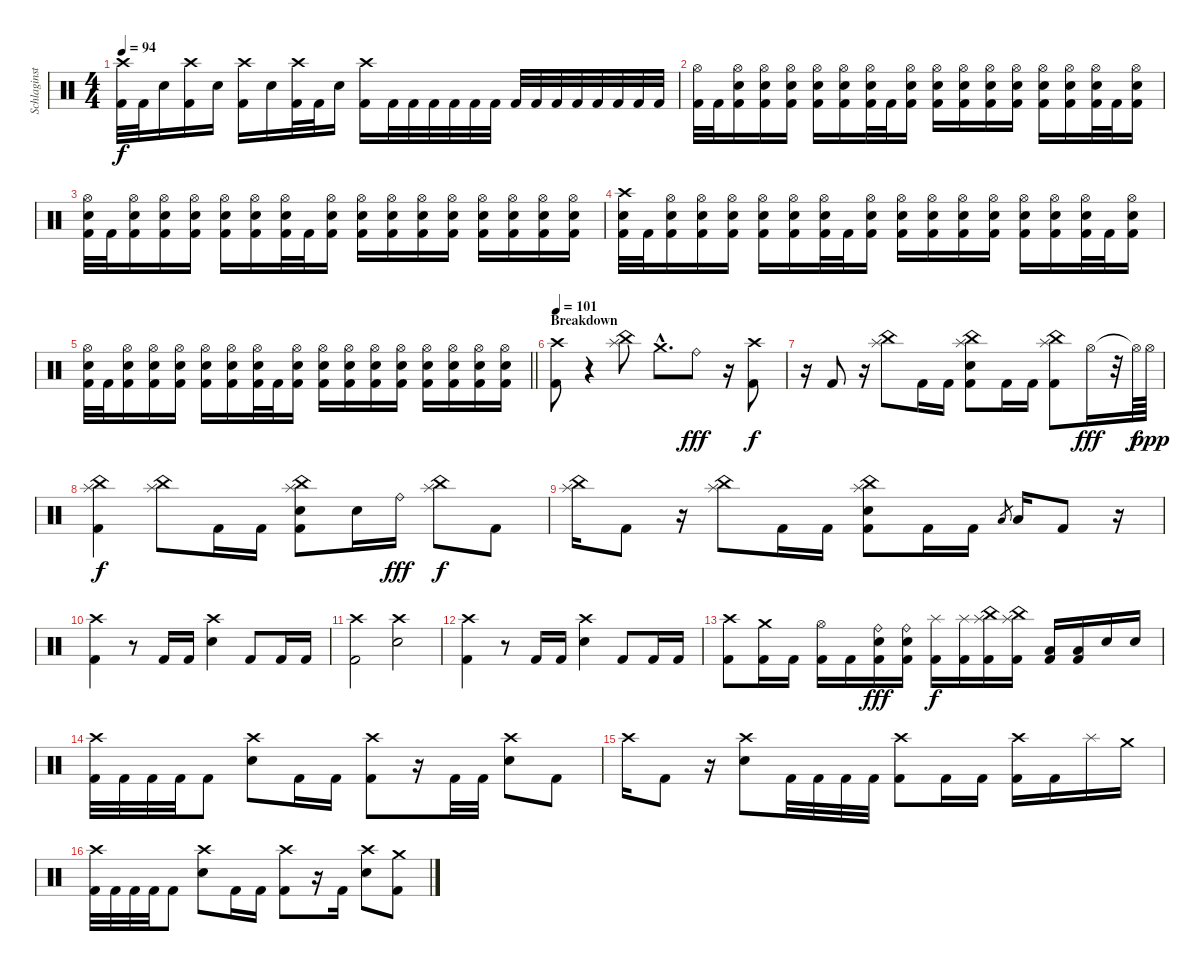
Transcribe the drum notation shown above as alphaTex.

\track ("Schlaginstrumente - Auswahl" "Schlaginst") {instrument percussion}
\staff {score}
\articulation defaults
\ts (4 4)
\tempo 94
\clef neutral
\ks c
("Crash high (hit)" "Kick (hit) 2").32{dy f} "Kick (hit) 2".32 "Snare (hit) 2".16 ("Crash high (hit)" "Kick (hit) 2").16 "Snare (hit) 2".16 ("Crash high (hit)" "Kick (hit) 2").16 "Snare (hit) 2".16 ("Crash high (hit)" "Kick (hit) 2").32 "Kick (hit) 2".32 "Snare (hit) 2".16 ("Crash high (hit)" "Kick (hit) 2").16 "Kick (hit) 2".32 "Kick (hit) 2".32 "Kick (hit) 2".32 "Kick (hit) 2".32 "Kick (hit) 2".32 "Kick (hit) 2".32 "Kick (hit) 2".32 "Kick (hit) 2".32 "Kick (hit) 2".32 "Kick (hit) 2".32 "Kick (hit) 2".32 "Kick (hit) 2".32 "Kick (hit) 2".32 "Kick (hit) 2".32 |
("Hi-Hat (open)" "Kick (hit) 2").32 "Kick (hit) 2".32 ("Hi-Hat (open)" "Snare (hit) 2" "Kick (hit) 2").16 ("Hi-Hat (open)" "Snare (hit) 2" "Kick (hit) 2").16 ("Hi-Hat (open)" "Snare (hit) 2" "Kick (hit) 2").16 ("Hi-Hat (open)" "Snare (hit) 2" "Kick (hit) 2").16 ("Hi-Hat (open)" "Snare (hit) 2" "Kick (hit) 2").16 ("Hi-Hat (open)" "Snare (hit) 2" "Kick (hit) 2").32 "Kick (hit) 2".32 ("Hi-Hat (open)" "Snare (hit) 2" "Kick (hit) 2").16 ("Hi-Hat (open)" "Snare (hit) 2" "Kick (hit) 2").16 ("Hi-Hat (open)" "Snare (hit) 2" "Kick (hit) 2").16 ("Hi-Hat (open)" "Snare (hit) 2" "Kick (hit) 2").16 ("Hi-Hat (open)" "Snare (hit) 2" "Kick (hit) 2").16 ("Hi-Hat (open)" "Snare (hit) 2" "Kick (hit) 2").16 ("Hi-Hat (open)" "Snare (hit) 2" "Kick (hit) 2").16 ("Hi-Hat (open)" "Snare (hit) 2" "Kick (hit) 2").32 "Kick (hit) 2".32 ("Hi-Hat (open)" "Snare (hit) 2" "Kick (hit) 2").16 |
("Hi-Hat (open)" "Snare (hit) 2" "Kick (hit) 2").32 "Kick (hit) 2".32 ("Hi-Hat (open)" "Snare (hit) 2" "Kick (hit) 2").16 ("Hi-Hat (open)" "Snare (hit) 2" "Kick (hit) 2").16 ("Hi-Hat (open)" "Snare (hit) 2" "Kick (hit) 2").16 ("Hi-Hat (open)" "Snare (hit) 2" "Kick (hit) 2").16 ("Hi-Hat (open)" "Snare (hit) 2" "Kick (hit) 2").16 ("Hi-Hat (open)" "Snare (hit) 2" "Kick (hit) 2").32 "Kick (hit) 2".32 ("Hi-Hat (open)" "Snare (hit) 2" "Kick (hit) 2").16 ("Hi-Hat (open)" "Snare (hit) 2" "Kick (hit) 2").16 ("Hi-Hat (open)" "Snare (hit) 2" "Kick (hit) 2").16 ("Hi-Hat (open)" "Snare (hit) 2" "Kick (hit) 2").16 ("Hi-Hat (open)" "Snare (hit) 2" "Kick (hit) 2").16 ("Hi-Hat (open)" "Snare (hit) 2" "Kick (hit) 2").16 ("Hi-Hat (open)" "Snare (hit) 2" "Kick (hit) 2").16 ("Hi-Hat (open)" "Snare (hit) 2" "Kick (hit) 2").16 ("Hi-Hat (open)" "Snare (hit) 2" "Kick (hit) 2").16 |
("Crash high (hit)" "Snare (hit) 2" "Kick (hit) 2").32 "Kick (hit) 2".32 ("Hi-Hat (open)" "Snare (hit) 2" "Kick (hit) 2").16 ("Hi-Hat (open)" "Snare (hit) 2" "Kick (hit) 2").16 ("Hi-Hat (open)" "Snare (hit) 2" "Kick (hit) 2").16 ("Hi-Hat (open)" "Snare (hit) 2" "Kick (hit) 2").16 ("Hi-Hat (open)" "Snare (hit) 2" "Kick (hit) 2").16 ("Hi-Hat (open)" "Snare (hit) 2" "Kick (hit) 2").32 "Kick (hit) 2".32 ("Hi-Hat (open)" "Snare (hit) 2" "Kick (hit) 2").16 ("Hi-Hat (open)" "Snare (hit) 2" "Kick (hit) 2").16 ("Hi-Hat (open)" "Snare (hit) 2" "Kick (hit) 2").16 ("Hi-Hat (open)" "Snare (hit) 2" "Kick (hit) 2").16 ("Hi-Hat (open)" "Snare (hit) 2" "Kick (hit) 2").16 ("Hi-Hat (open)" "Snare (hit) 2" "Kick (hit) 2").16 ("Hi-Hat (open)" "Snare (hit) 2" "Kick (hit) 2").16 ("Hi-Hat (open)" "Snare (hit) 2" "Kick (hit) 2").32 "Kick (hit) 2".32 ("Hi-Hat (open)" "Snare (hit) 2" "Kick (hit) 2").16 |
\barLineRight lightlight
("Hi-Hat (open)" "Snare (hit) 2" "Kick (hit) 2").32 "Kick (hit) 2".32 ("Hi-Hat (open)" "Snare (hit) 2" "Kick (hit) 2").16 ("Hi-Hat (open)" "Snare (hit) 2" "Kick (hit) 2").16 ("Hi-Hat (open)" "Snare (hit) 2" "Kick (hit) 2").16 ("Hi-Hat (open)" "Snare (hit) 2" "Kick (hit) 2").16 ("Hi-Hat (open)" "Snare (hit) 2" "Kick (hit) 2").16 ("Hi-Hat (open)" "Snare (hit) 2" "Kick (hit) 2").32 "Kick (hit) 2".32 ("Hi-Hat (open)" "Snare (hit) 2" "Kick (hit) 2").16 ("Hi-Hat (open)" "Snare (hit) 2" "Kick (hit) 2").16 ("Hi-Hat (open)" "Snare (hit) 2" "Kick (hit) 2").16 ("Hi-Hat (open)" "Snare (hit) 2" "Kick (hit) 2").16 ("Hi-Hat (open)" "Snare (hit) 2" "Kick (hit) 2").16 ("Hi-Hat (open)" "Snare (hit) 2" "Kick (hit) 2").16 ("Hi-Hat (open)" "Snare (hit) 2" "Kick (hit) 2").16 ("Hi-Hat (open)" "Snare (hit) 2" "Kick (hit) 2").16 ("Hi-Hat (open)" "Snare (hit) 2" "Kick (hit) 2").16 |
\section ("" "Breakdown")
\tempo 101
("Crash high (hit)" "Kick (hit) 2").8 r.4 ("China (hit)" "Splash (hit)").8 "Crash medium (hit)"{hac}.8{d} "Ride (bell)".8{dy fff} r.16 ("Crash high (hit)" "Kick (hit) 2").8{dy f} |
r.16 "Kick (hit) 2".8 r.16 ("China (hit)" "Splash (hit)").8 "Kick (hit) 2".16 "Kick (hit) 2".16 ("China (hit)" "Splash (hit)" "Snare (hit) 2" "Kick (hit) 2").8 "Kick (hit) 2".16 "Kick (hit) 2".16 ("China (hit)" "Splash (hit)" "Kick (hit) 2").8 "Hi-Hat (open)".16{dy fff} r.32 "Hi-Hat (open)"{t}.64{dy f} "Hi-Hat (open)".64{dy ppp} |
("China (hit)" "Splash (hit)" "Kick (hit) 2").4{dy f} ("China (hit)" "Splash (hit)").8 "Kick (hit) 2".16 "Kick (hit) 2".16 ("China (hit)" "Splash (hit)" "Snare (hit) 2" "Kick (hit) 2").8 "Snare (hit) 2".16 "Ride (bell)".16{dy fff} ("China (hit)" "Splash (hit)").8{dy f} "Kick (hit) 2".8 |
("China (hit)" "Splash (hit)").16 "Kick (hit) 2".8 r.16 ("China (hit)" "Splash (hit)").8 "Kick (hit) 2".16 "Kick (hit) 2".16 ("China (hit)" "Splash (hit)" "Snare (hit) 2" "Kick (hit) 2").8 "Kick (hit) 2".16 "Kick (hit) 2".16 "Low Tom (hit)".8{gr} "Low Tom (hit)".16 "Kick (hit) 2".8 r.16 |
("Crash high (hit)" "Kick (hit) 2").4 r.8 "Kick (hit) 2".16 "Kick (hit) 2".16 ("Crash high (hit)" "Snare (hit) 2").4 "Kick (hit) 2".8 "Kick (hit) 2".16 "Kick (hit) 2".16 |
("Crash high (hit)" "Kick (hit) 2").2 ("Crash high (hit)" "Snare (hit) 2").2 |
("Crash high (hit)" "Kick (hit) 2").4 r.8 "Kick (hit) 2".16 "Kick (hit) 2".16 ("Crash high (hit)" "Snare (hit) 2").4 "Kick (hit) 2".8 "Kick (hit) 2".16 "Kick (hit) 2".16 |
("Crash high (hit)" "Kick (hit) 2").8 ("Crash medium (hit)" "Kick (hit) 2").16 "Kick (hit) 2".16 ("Hi-Hat (open)" "Kick (hit) 2").16 "Kick (hit) 2".16 ("Ride (bell)" "Snare (hit) 2" "Kick (hit) 2").16{dy fff} ("Ride (bell)" "Snare (hit) 2" "Kick (hit) 2").16 ("Splash (hit)" "Kick (hit) 2").16{dy f} ("Splash (hit)" "Kick (hit) 2").16 ("China (hit)" "Splash (hit)" "Kick (hit) 2").16 ("China (hit)" "Splash (hit)" "Kick (hit) 2").16 ("Low Tom (hit)" "Kick (hit) 2").16 ("Low Tom (hit)" "Kick (hit) 2").16 "Snare (hit) 2".16 "Snare (hit) 2".16 |
("Crash high (hit)" "Kick (hit) 2").32 "Kick (hit) 2".32 "Kick (hit) 2".32 "Kick (hit) 2".32 "Kick (hit) 2".8 ("Crash high (hit)" "Snare (hit) 2").8 "Kick (hit) 2".16 "Kick (hit) 2".16 ("Crash high (hit)" "Kick (hit) 2").8 r.16 "Kick (hit) 2".32 "Kick (hit) 2".32 ("Crash high (hit)" "Snare (hit) 2").8 "Kick (hit) 2".8 |
"Crash high (hit)".16 "Kick (hit) 2".8 r.16 ("Crash high (hit)" "Snare (hit) 2").8 "Kick (hit) 2".32 "Kick (hit) 2".32 "Kick (hit) 2".32 "Kick (hit) 2".32 ("Crash high (hit)" "Kick (hit) 2").8 "Kick (hit) 2".16 "Kick (hit) 2".16 ("Crash high (hit)" "Kick (hit) 2").16 "Kick (hit) 2".16 "Splash (hit)".16 "Crash medium (hit)".16 |
("Crash high (hit)" "Kick (hit) 2").32 "Kick (hit) 2".32 "Kick (hit) 2".32 "Kick (hit) 2".32 "Kick (hit) 2".8 ("Crash high (hit)" "Snare (hit) 2").8 "Kick (hit) 2".16 "Kick (hit) 2".16 ("Crash high (hit)" "Kick (hit) 2").8 r.16 "Kick (hit) 2".16 ("Crash high (hit)" "Snare (hit) 2").8 ("Crash medium (hit)" "Kick (hit) 2").8
